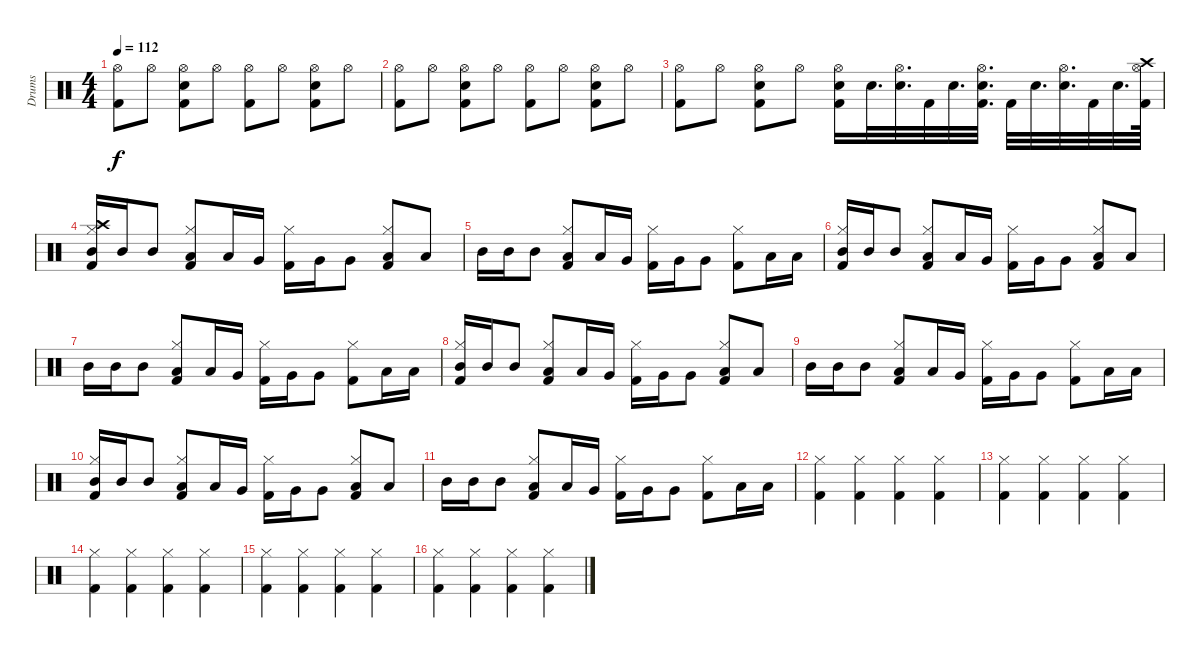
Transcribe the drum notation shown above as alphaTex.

\track ("Drums" "Drums") {instrument percussion}
\staff {score}
\articulation defaults
\ts (4 4)
\tempo 112
\clef neutral
\ks c
("Hi-Hat (open)" "Kick (hit) 2").8{dy f} "Hi-Hat (open)".8 ("Hi-Hat (open)" "Kick (hit) 2" "Snare (hit) 2").8 "Hi-Hat (open)".8 ("Kick (hit) 2" "Hi-Hat (open)").8 "Hi-Hat (open)".8 ("Kick (hit) 2" "Snare (hit) 2" "Hi-Hat (open)").8 "Hi-Hat (open)".8 |
("Hi-Hat (open)" "Kick (hit) 2").8 "Hi-Hat (open)".8 ("Hi-Hat (open)" "Kick (hit) 2" "Snare (hit) 2").8 "Hi-Hat (open)".8 ("Kick (hit) 2" "Hi-Hat (open)").8 "Hi-Hat (open)".8 ("Kick (hit) 2" "Snare (hit) 2" "Hi-Hat (open)").8 "Hi-Hat (open)".8 |
("Hi-Hat (open)" "Kick (hit) 2").8 "Hi-Hat (open)".8 ("Kick (hit) 2" "Snare (hit) 2" "Hi-Hat (open)").8 "Hi-Hat (open)".8 ("Hi-Hat (open)" "Kick (hit) 2" "Snare (hit) 2").16 "Snare (hit) 2".32{d} ("Hi-Hat (open)" "Snare (hit) 2").32{d} "Kick (hit) 2".32 "Snare (hit) 2".32{d} ("Hi-Hat (open)" "Snare (hit) 2" "Kick (hit) 2").32{d} "Kick (hit) 2".32 "Snare (hit) 2".32{d} ("Snare (hit) 2" "Hi-Hat (open)").32{d} "Kick (hit) 2".32 "Snare (hit) 2".32{d} ("Hi-Hat (open)" "Kick (hit) 2" "Crash high (hit)").64 |
("Crash high (hit)" "Hi-Hat (closed)" "Mid Tom (hit)" "Kick (hit) 2").16 "Mid Tom (hit)".16 "Mid Tom (hit)".8 ("Kick (hit) 2" "Hi-Hat (closed)" "Low Tom (hit)").8 "Low Tom (hit)".16 "Very Low Tom (hit)".16 ("Kick (hit) 2" "Hi-Hat (closed)").16 "Very Low Tom (hit)".16 "Very Low Tom (hit)".8 ("Hi-Hat (closed)" "Kick (hit) 2" "Low Floor Tom (hit)").8 "Low Floor Tom (hit)".8 |
"Mid Tom (hit)".16 "Mid Tom (hit)".16 "Mid Tom (hit)".8 ("Hi-Hat (closed)" "Kick (hit) 2" "Low Tom (hit)").8 "Low Tom (hit)".16 "Very Low Tom (hit)".16 ("Kick (hit) 2" "Hi-Hat (closed)").16 "Very Low Tom (hit)".16 "Very Low Tom (hit)".8 ("Kick (hit) 2" "Hi-Hat (closed)").8 "Low Floor Tom (hit)".16 "Low Floor Tom (hit)".16 |
("Hi-Hat (closed)" "Kick (hit) 2" "Mid Tom (hit)").16 "Mid Tom (hit)".16 "Mid Tom (hit)".8 ("Hi-Hat (closed)" "Low Tom (hit)" "Kick (hit) 2").8 "Low Tom (hit)".16 "Very Low Tom (hit)".16 ("Kick (hit) 2" "Hi-Hat (closed)").16 "Very Low Tom (hit)".16 "Very Low Tom (hit)".8 ("Low Floor Tom (hit)" "Kick (hit) 2" "Hi-Hat (closed)").8 "Low Floor Tom (hit)".8 |
"Mid Tom (hit)".16 "Mid Tom (hit)".16 "Mid Tom (hit)".8 ("Hi-Hat (closed)" "Kick (hit) 2" "Low Tom (hit)").8 "Low Tom (hit)".16 "Very Low Tom (hit)".16 ("Kick (hit) 2" "Hi-Hat (closed)").16 "Very Low Tom (hit)".16 "Very Low Tom (hit)".8 ("Kick (hit) 2" "Hi-Hat (closed)").8 "Low Floor Tom (hit)".16 "Low Floor Tom (hit)".16 |
("Hi-Hat (closed)" "Kick (hit) 2" "Mid Tom (hit)").16 "Mid Tom (hit)".16 "Mid Tom (hit)".8 ("Hi-Hat (closed)" "Low Tom (hit)" "Kick (hit) 2").8 "Low Tom (hit)".16 "Very Low Tom (hit)".16 ("Kick (hit) 2" "Hi-Hat (closed)").16 "Very Low Tom (hit)".16 "Very Low Tom (hit)".8 ("Low Floor Tom (hit)" "Kick (hit) 2" "Hi-Hat (closed)").8 "Low Floor Tom (hit)".8 |
"Mid Tom (hit)".16 "Mid Tom (hit)".16 "Mid Tom (hit)".8 ("Hi-Hat (closed)" "Kick (hit) 2" "Low Tom (hit)").8 "Low Tom (hit)".16 "Very Low Tom (hit)".16 ("Kick (hit) 2" "Hi-Hat (closed)").16 "Very Low Tom (hit)".16 "Very Low Tom (hit)".8 ("Kick (hit) 2" "Hi-Hat (closed)").8 "Low Floor Tom (hit)".16 "Low Floor Tom (hit)".16 |
("Hi-Hat (closed)" "Kick (hit) 2" "Mid Tom (hit)").16 "Mid Tom (hit)".16 "Mid Tom (hit)".8 ("Hi-Hat (closed)" "Low Tom (hit)" "Kick (hit) 2").8 "Low Tom (hit)".16 "Very Low Tom (hit)".16 ("Kick (hit) 2" "Hi-Hat (closed)").16 "Very Low Tom (hit)".16 "Very Low Tom (hit)".8 ("Low Floor Tom (hit)" "Kick (hit) 2" "Hi-Hat (closed)").8 "Low Floor Tom (hit)".8 |
"Mid Tom (hit)".16 "Mid Tom (hit)".16 "Mid Tom (hit)".8 ("Hi-Hat (closed)" "Kick (hit) 2" "Low Tom (hit)").8 "Low Tom (hit)".16 "Very Low Tom (hit)".16 ("Kick (hit) 2" "Hi-Hat (closed)").16 "Very Low Tom (hit)".16 "Very Low Tom (hit)".8 ("Kick (hit) 2" "Hi-Hat (closed)").8 "Low Floor Tom (hit)".16 "Low Floor Tom (hit)".16 |
("Kick (hit) 2" "Hi-Hat (closed)").4 ("Hi-Hat (closed)" "Kick (hit) 2").4 ("Kick (hit) 2" "Hi-Hat (closed)").4 ("Hi-Hat (closed)" "Kick (hit) 2").4 |
("Kick (hit) 2" "Hi-Hat (closed)").4 ("Hi-Hat (closed)" "Kick (hit) 2").4 ("Kick (hit) 2" "Hi-Hat (closed)").4 ("Hi-Hat (closed)" "Kick (hit) 2").4 |
("Kick (hit) 2" "Hi-Hat (closed)").4 ("Hi-Hat (closed)" "Kick (hit) 2").4 ("Kick (hit) 2" "Hi-Hat (closed)").4 ("Hi-Hat (closed)" "Kick (hit) 2").4 |
("Kick (hit) 2" "Hi-Hat (closed)").4 ("Hi-Hat (closed)" "Kick (hit) 2").4 ("Kick (hit) 2" "Hi-Hat (closed)").4 ("Hi-Hat (closed)" "Kick (hit) 2").4 |
("Kick (hit) 2" "Hi-Hat (closed)").4 ("Hi-Hat (closed)" "Kick (hit) 2").4 ("Kick (hit) 2" "Hi-Hat (closed)").4 ("Hi-Hat (closed)" "Kick (hit) 2").4
